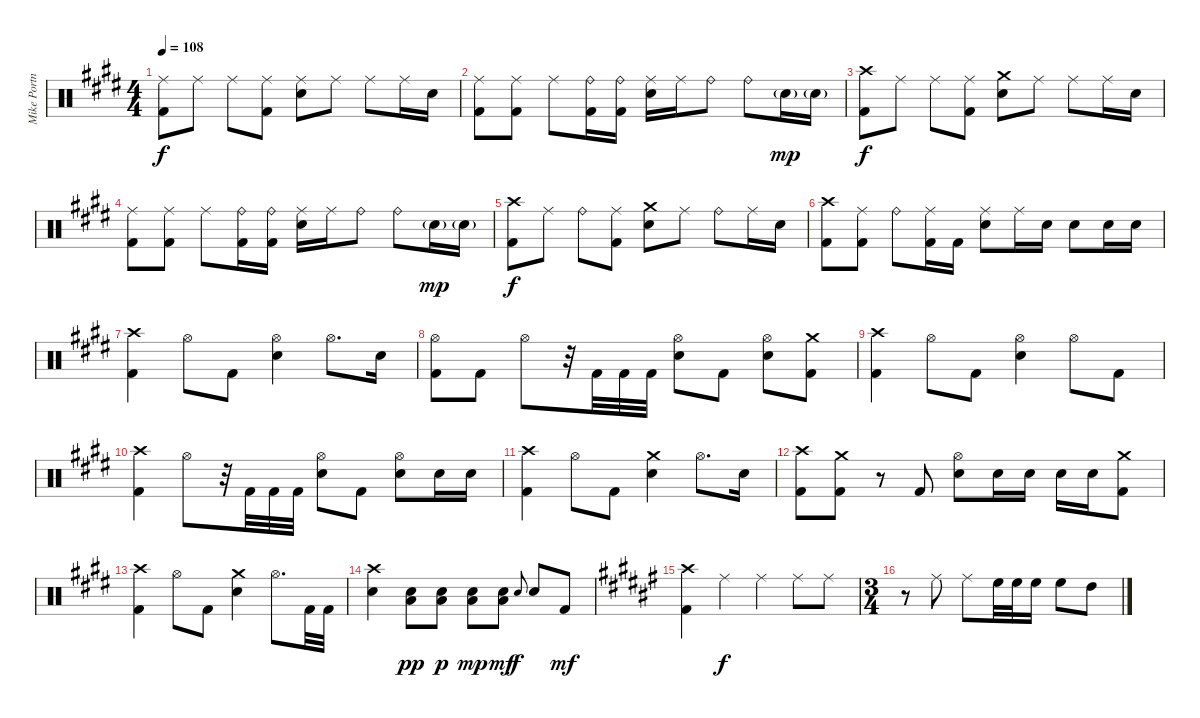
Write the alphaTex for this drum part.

\track ("Mike Portnoy" "Mike Portn") {instrument percussion}
\staff {score}
\articulation defaults
\ts (4 4)
\tempo 108
\clef neutral
\ks c#minor
("Ride (middle)" "Kick (hit) 2").8{dy f} "Ride (middle)".8 "Ride (middle)".8 ("Ride (middle)" "Kick (hit) 2").8 ("Ride (middle)" "Snare (hit) 2").8 "Ride (middle)".8 "Ride (middle)".8 "Ride (middle)".16 "Snare (hit) 2".16 |
("Ride (middle)" "Kick (hit) 2").8 ("Ride (middle)" "Kick (hit) 2").8 "Ride (middle)".8 ("Ride (bell)" "Kick (hit) 2").16 ("Ride (bell)" "Kick (hit) 2").16 ("Ride (middle)" "Snare (hit) 2").16 "Ride (middle)".16 "Ride (bell)".8 "Ride (bell)".8 "Snare (hit) 2"{g}.16{dy mp} "Snare (hit) 2"{g}.16 |
("Crash high (hit)" "Kick (hit) 2").8{dy f} "Ride (middle)".8 "Ride (middle)".8 ("Ride (middle)" "Kick (hit) 2").8 ("Crash medium (hit)" "Snare (hit) 2").8 "Ride (middle)".8 "Ride (middle)".8 "Ride (middle)".16 "Snare (hit) 2".16 |
("Ride (middle)" "Kick (hit) 2").8 ("Ride (middle)" "Kick (hit) 2").8 "Ride (middle)".8 ("Ride (bell)" "Kick (hit) 2").16 ("Ride (bell)" "Kick (hit) 2").16 ("Ride (middle)" "Snare (hit) 2").16 "Ride (middle)".16 "Ride (bell)".8 "Ride (bell)".8 "Snare (hit) 2"{g}.16{dy mp} "Snare (hit) 2"{g}.16 |
("Crash high (hit)" "Kick (hit) 2").8{dy f} "Ride (middle)".8 "Ride (bell)".8 ("Ride (middle)" "Kick (hit) 2").8 ("Crash medium (hit)" "Snare (hit) 2").8 "Ride (middle)".8 "Ride (bell)".8 "Ride (middle)".16 "Snare (hit) 2".16 |
("Crash high (hit)" "Kick (hit) 2").8 ("Ride (middle)" "Kick (hit) 2").8 "Ride (bell)".8 ("Ride (middle)" "Kick (hit) 2").16 "Kick (hit) 2".16 ("Ride (middle)" "Snare (hit) 2").8 "Ride (middle)".16 "Snare (hit) 2".16 "Snare (hit) 2".8 "Snare (hit) 2".16 "Snare (hit) 2".16 |
("Crash high (hit)" "Kick (hit) 2").4 "Hi-Hat (open)".8 "Kick (hit) 2".8 ("Hi-Hat (open)" "Snare (hit) 2").4 "Hi-Hat (open)".8{d} "Snare (hit) 2".16 |
("Hi-Hat (open)" "Kick (hit) 2").8 "Kick (hit) 2".8 "Hi-Hat (open)".8 r.32 "Kick (hit) 2".32 "Kick (hit) 2".32 "Kick (hit) 2".32 ("Hi-Hat (open)" "Snare (hit) 2").8 "Kick (hit) 2".8 ("Hi-Hat (open)" "Snare (hit) 2").8 ("Crash medium (hit)" "Kick (hit) 2").8 |
("Crash high (hit)" "Kick (hit) 2").4 "Hi-Hat (open)".8 "Kick (hit) 2".8 ("Hi-Hat (open)" "Snare (hit) 2").4 "Hi-Hat (open)".8 "Kick (hit) 2".8 |
("Crash high (hit)" "Kick (hit) 2").4 "Hi-Hat (open)".8 r.32 "Kick (hit) 2".32 "Kick (hit) 2".32 "Kick (hit) 2".32 ("Hi-Hat (open)" "Snare (hit) 2").8 "Kick (hit) 2".8 ("Hi-Hat (open)" "Snare (hit) 2").8 "Snare (hit) 2".16 "Snare (hit) 2".16 |
("Crash high (hit)" "Kick (hit) 2").4 "Hi-Hat (open)".8 "Kick (hit) 2".8 ("Crash medium (hit)" "Snare (hit) 2").4 "Hi-Hat (open)".8{d} "Snare (hit) 2".16 |
("Crash high (hit)" "Kick (hit) 2").8 ("Crash medium (hit)" "Kick (hit) 2").8 r.8 "Kick (hit) 2".8 ("Hi-Hat (open)" "Snare (hit) 2").8 "Snare (hit) 2".16 "Snare (hit) 2".16 "Snare (hit) 2".16 "Snare (hit) 2".16 ("Crash medium (hit)" "Kick (hit) 2").8 |
("Crash high (hit)" "Kick (hit) 2").4 "Hi-Hat (open)".8 "Kick (hit) 2".8 ("Crash medium (hit)" "Snare (hit) 2").4 "Hi-Hat (open)".8{d} "Kick (hit) 2".32 "Kick (hit) 2".32 |
("Crash high (hit)" "Snare (hit) 2").4 ("Snare (hit) 2" "Low Tom (hit)").8{dy pp} ("Snare (hit) 2" "Low Tom (hit)").8{dy p} ("Snare (hit) 2" "Low Tom (hit)").8{dy mp} ("Snare (hit) 2" "Low Tom (hit)").8{dy mf} "Snare (hit) 2".8{gr onbeat dy f} "Snare (hit) 2".8 "Kick (hit) 2".8{dy mf} |
\ks f#
("Crash high (hit)" "Kick (hit) 2").4 "Ride (middle)".4{dy f} "Ride (middle)".4 "Ride (middle)".8 "Ride (middle)".8 |
\ts (3 4)
r.8 "Ride (middle)".8 "Ride (middle)".8 "High Floor Tom (hit)".32 "High Floor Tom (hit)".32 "High Floor Tom (hit)".16 "High Floor Tom (hit)".8 "High Tom (hit)".8
